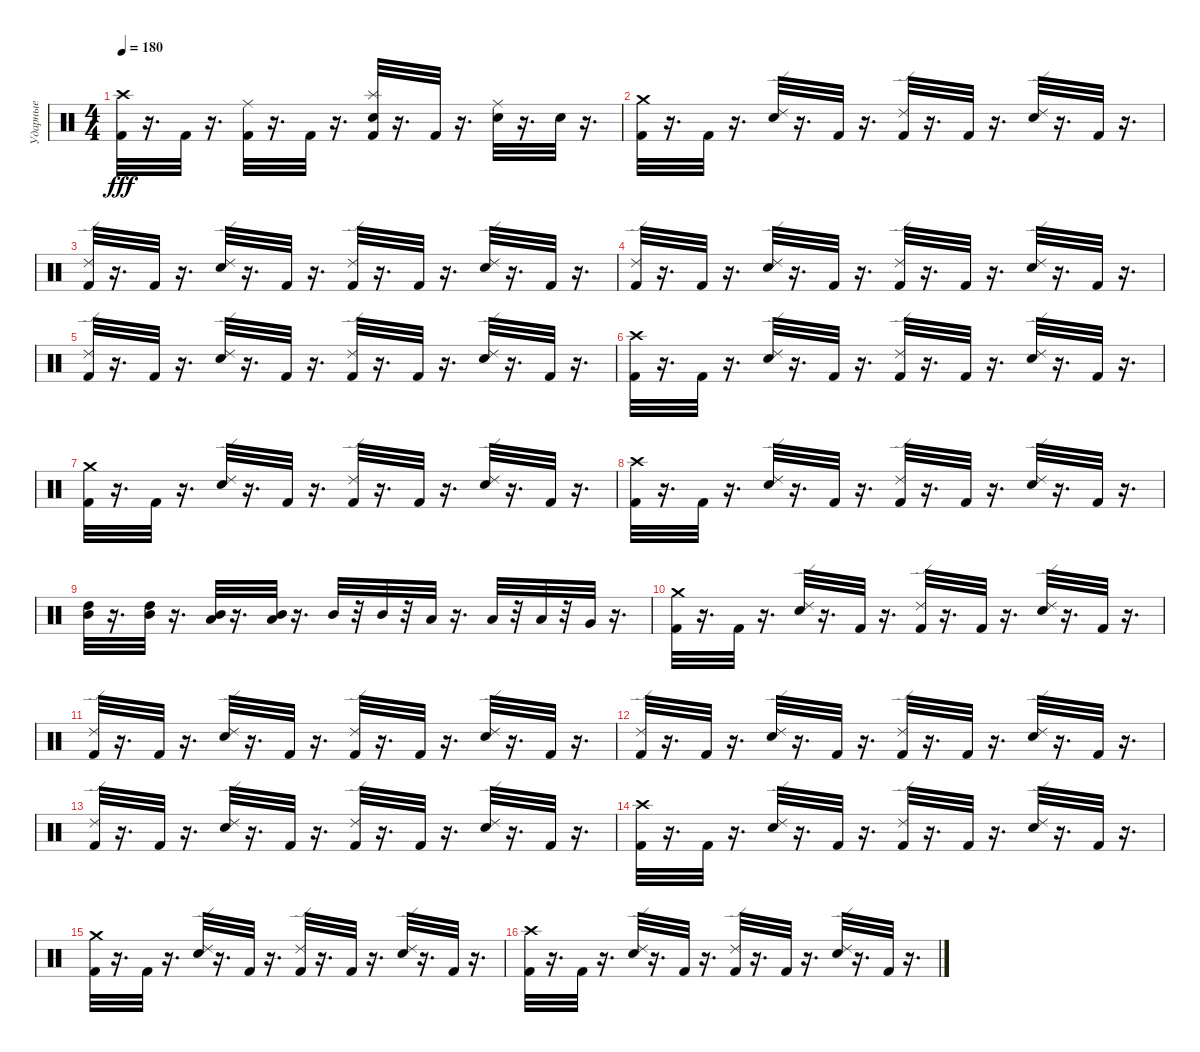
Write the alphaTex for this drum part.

\track ("Ударные" "Ударные") {instrument percussion}
\staff {score}
\articulation defaults
\ts (4 4)
\tempo 180
\clef neutral
\ks c
("Crash high (hit)" "Kick (hit) 2").32{dy fff} r.16{d} "Kick (hit) 2".32 r.16{d} ("Kick (hit) 2" "Ride (middle)").32 r.16{d} "Kick (hit) 2".32 r.16{d} ("Kick (hit) 2" "Splash (hit)" "Snare (hit) 2").32 r.16{d} "Kick (hit) 2".32 r.16{d} ("Snare (hit) 2" "Ride (middle)").32 r.16{d} "Snare (hit) 2".32 r.16{d} |
("Crash medium (hit)" "Kick (hit) 2").32 r.16{d} "Kick (hit) 2".32 r.16{d} ("Ride (edge) 2" "Snare (hit) 2").32 r.16{d} "Kick (hit) 2".32 r.16{d} ("Ride (edge) 2" "Kick (hit) 2").32 r.16{d} "Kick (hit) 2".32 r.16{d} ("Ride (edge) 2" "Snare (hit) 2").32 r.16{d} "Kick (hit) 2".32 r.16{d} |
("Kick (hit) 2" "Ride (edge) 2").32 r.16{d} "Kick (hit) 2".32 r.16{d} ("Ride (edge) 2" "Snare (hit) 2").32 r.16{d} "Kick (hit) 2".32 r.16{d} ("Kick (hit) 2" "Ride (edge) 2").32 r.16{d} "Kick (hit) 2".32 r.16{d} ("Ride (edge) 2" "Snare (hit) 2").32 r.16{d} "Kick (hit) 2".32 r.16{d} |
("Ride (edge) 2" "Kick (hit) 2").32 r.16{d} "Kick (hit) 2".32 r.16{d} ("Snare (hit) 2" "Ride (edge) 2").32 r.16{d} "Kick (hit) 2".32 r.16{d} ("Kick (hit) 2" "Ride (edge) 2").32 r.16{d} "Kick (hit) 2".32 r.16{d} ("Snare (hit) 2" "Ride (edge) 2").32 r.16{d} "Kick (hit) 2".32 r.16{d} |
("Kick (hit) 2" "Ride (edge) 2").32 r.16{d} "Kick (hit) 2".32 r.16{d} ("Ride (edge) 2" "Snare (hit) 2").32 r.16{d} "Kick (hit) 2".32 r.16{d} ("Kick (hit) 2" "Ride (edge) 2").32 r.16{d} "Kick (hit) 2".32 r.16{d} ("Ride (edge) 2" "Snare (hit) 2").32 r.16{d} "Kick (hit) 2".32 r.16{d} |
("Kick (hit) 2" "Crash high (hit)").32 r.16{d} "Kick (hit) 2".32 r.16{d} ("Snare (hit) 2" "Ride (edge) 2").32 r.16{d} "Kick (hit) 2".32 r.16{d} ("Ride (edge) 2" "Kick (hit) 2").32 r.16{d} "Kick (hit) 2".32 r.16{d} ("Ride (edge) 2" "Snare (hit) 2").32 r.16{d} "Kick (hit) 2".32 r.16{d} |
("Crash medium (hit)" "Kick (hit) 2").32 r.16{d} "Kick (hit) 2".32 r.16{d} ("Ride (edge) 2" "Snare (hit) 2").32 r.16{d} "Kick (hit) 2".32 r.16{d} ("Kick (hit) 2" "Ride (edge) 2").32 r.16{d} "Kick (hit) 2".32 r.16{d} ("Snare (hit) 2" "Ride (edge) 2").32 r.16{d} "Kick (hit) 2".32 r.16{d} |
("Crash high (hit)" "Kick (hit) 2").32 r.16{d} "Kick (hit) 2".32 r.16{d} ("Ride (edge) 2" "Snare (hit) 2").32 r.16{d} "Kick (hit) 2".32 r.16{d} ("Ride (edge) 2" "Kick (hit) 2").32 r.16{d} "Kick (hit) 2".32 r.16{d} ("Snare (hit) 2" "Ride (edge) 2").32 r.16{d} "Kick (hit) 2".32 r.16{d} |
("Mid Tom (hit)" "High Tom (hit)").32 r.16{d} ("High Tom (hit)" "Mid Tom (hit)").32 r.16{d} ("Mid Tom (hit)" "Low Tom (hit)").32 r.16{d} ("Low Tom (hit)" "Mid Tom (hit)").32 r.16{d} "Mid Tom (hit)".32 r.32 "Mid Tom (hit)".32 r.32 "Low Tom (hit)".32 r.16{d} "Low Tom (hit)".32 r.32 "Low Tom (hit)".32 r.32 "Very Low Tom (hit)".32 r.16{d} |
("Kick (hit) 2" "Crash medium (hit)").32 r.16{d} "Kick (hit) 2".32 r.16{d} ("Snare (hit) 2" "Ride (edge) 2").32 r.16{d} "Kick (hit) 2".32 r.16{d} ("Ride (edge) 2" "Kick (hit) 2").32 r.16{d} "Kick (hit) 2".32 r.16{d} ("Snare (hit) 2" "Ride (edge) 2").32 r.16{d} "Kick (hit) 2".32 r.16{d} |
("Kick (hit) 2" "Ride (edge) 2").32 r.16{d} "Kick (hit) 2".32 r.16{d} ("Ride (edge) 2" "Snare (hit) 2").32 r.16{d} "Kick (hit) 2".32 r.16{d} ("Kick (hit) 2" "Ride (edge) 2").32 r.16{d} "Kick (hit) 2".32 r.16{d} ("Snare (hit) 2" "Ride (edge) 2").32 r.16{d} "Kick (hit) 2".32 r.16{d} |
("Kick (hit) 2" "Ride (edge) 2").32 r.16{d} "Kick (hit) 2".32 r.16{d} ("Ride (edge) 2" "Snare (hit) 2").32 r.16{d} "Kick (hit) 2".32 r.16{d} ("Ride (edge) 2" "Kick (hit) 2").32 r.16{d} "Kick (hit) 2".32 r.16{d} ("Ride (edge) 2" "Snare (hit) 2").32 r.16{d} "Kick (hit) 2".32 r.16{d} |
("Ride (edge) 2" "Kick (hit) 2").32 r.16{d} "Kick (hit) 2".32 r.16{d} ("Ride (edge) 2" "Snare (hit) 2").32 r.16{d} "Kick (hit) 2".32 r.16{d} ("Kick (hit) 2" "Ride (edge) 2").32 r.16{d} "Kick (hit) 2".32 r.16{d} ("Snare (hit) 2" "Ride (edge) 2").32 r.16{d} "Kick (hit) 2".32 r.16{d} |
("Kick (hit) 2" "Crash high (hit)").32 r.16{d} "Kick (hit) 2".32 r.16{d} ("Ride (edge) 2" "Snare (hit) 2").32 r.16{d} "Kick (hit) 2".32 r.16{d} ("Ride (edge) 2" "Kick (hit) 2").32 r.16{d} "Kick (hit) 2".32 r.16{d} ("Snare (hit) 2" "Ride (edge) 2").32 r.16{d} "Kick (hit) 2".32 r.16{d} |
("Crash medium (hit)" "Kick (hit) 2").32 r.16{d} "Kick (hit) 2".32 r.16{d} ("Ride (edge) 2" "Snare (hit) 2").32 r.16{d} "Kick (hit) 2".32 r.16{d} ("Kick (hit) 2" "Ride (edge) 2").32 r.16{d} "Kick (hit) 2".32 r.16{d} ("Ride (edge) 2" "Snare (hit) 2").32 r.16{d} "Kick (hit) 2".32 r.16{d} |
("Crash high (hit)" "Kick (hit) 2").32 r.16{d} "Kick (hit) 2".32 r.16{d} ("Ride (edge) 2" "Snare (hit) 2").32 r.16{d} "Kick (hit) 2".32 r.16{d} ("Kick (hit) 2" "Ride (edge) 2").32 r.16{d} "Kick (hit) 2".32 r.16{d} ("Ride (edge) 2" "Snare (hit) 2").32 r.16{d} "Kick (hit) 2".32 r.16{d}
